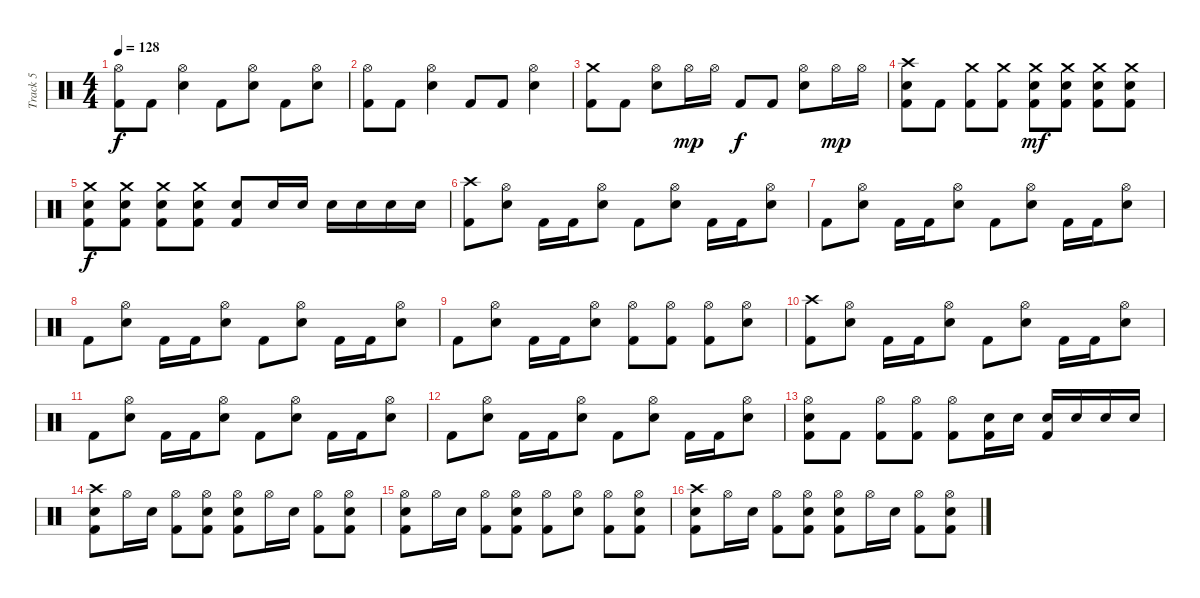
\track ("Track 5" "Track 5") {instrument percussion}
\staff {score}
\articulation defaults
\ts (4 4)
\tempo 128
\clef neutral
\ks c
("Hi-Hat (open)" "Kick (hit) 2").8{dy f} "Kick (hit) 2".8 ("Hi-Hat (open)" "Electric Snare (hit)").4 "Kick (hit) 2".8 ("Hi-Hat (open)" "Electric Snare (hit)").8 "Kick (hit) 2".8 ("Hi-Hat (open)" "Electric Snare (hit)").8 |
("Hi-Hat (open)" "Kick (hit) 2").8 "Kick (hit) 2".8 ("Hi-Hat (open)" "Electric Snare (hit)").4 "Kick (hit) 2".8 "Kick (hit) 2".8 ("Hi-Hat (open)" "Electric Snare (hit)").4 |
("Crash medium (hit)" "Kick (hit) 2").8 "Kick (hit) 2".8 ("Hi-Hat (open)" "Electric Snare (hit)").8 "Hi-Hat (open)".16{dy mp} "Hi-Hat (open)".16 "Kick (hit) 2".8{dy f} "Kick (hit) 2".8 ("Hi-Hat (open)" "Electric Snare (hit)").8 "Hi-Hat (open)".16{dy mp} "Hi-Hat (open)".16 |
("Crash high (hit)" "Electric Snare (hit)" "Kick (hit) 2").8 "Kick (hit) 2".8 ("Crash medium (hit)" "Kick (hit) 2").8 ("Crash medium (hit)" "Kick (hit) 2").8 ("Crash medium (hit)" "Electric Snare (hit)" "Kick (hit) 2").8{dy mf} ("Crash medium (hit)" "Electric Snare (hit)" "Kick (hit) 2").8 ("Crash medium (hit)" "Electric Snare (hit)" "Kick (hit) 2").8 ("Crash medium (hit)" "Electric Snare (hit)" "Kick (hit) 2").8 |
("Crash medium (hit)" "Electric Snare (hit)" "Kick (hit) 2").8{dy f} ("Crash medium (hit)" "Electric Snare (hit)" "Kick (hit) 2").8 ("Crash medium (hit)" "Electric Snare (hit)" "Kick (hit) 2").8 ("Crash medium (hit)" "Electric Snare (hit)" "Kick (hit) 2").8 ("Electric Snare (hit)" "Kick (hit) 2").8 "Electric Snare (hit)".16 "Electric Snare (hit)".16 "Electric Snare (hit)".16 "Electric Snare (hit)".16 "Electric Snare (hit)".16 "Electric Snare (hit)".16 |
("Crash high (hit)" "Kick (hit) 2").8 ("Hi-Hat (open)" "Electric Snare (hit)").8 "Kick (hit) 2".16 "Kick (hit) 2".16 ("Hi-Hat (open)" "Electric Snare (hit)").8 "Kick (hit) 2".8 ("Hi-Hat (open)" "Electric Snare (hit)").8 "Kick (hit) 2".16 "Kick (hit) 2".16 ("Hi-Hat (open)" "Electric Snare (hit)").8 |
"Kick (hit) 2".8 ("Hi-Hat (open)" "Electric Snare (hit)").8 "Kick (hit) 2".16 "Kick (hit) 2".16 ("Hi-Hat (open)" "Electric Snare (hit)").8 "Kick (hit) 2".8 ("Hi-Hat (open)" "Electric Snare (hit)").8 "Kick (hit) 2".16 "Kick (hit) 2".16 ("Hi-Hat (open)" "Electric Snare (hit)").8 |
"Kick (hit) 2".8 ("Hi-Hat (open)" "Electric Snare (hit)").8 "Kick (hit) 2".16 "Kick (hit) 2".16 ("Hi-Hat (open)" "Electric Snare (hit)").8 "Kick (hit) 2".8 ("Hi-Hat (open)" "Electric Snare (hit)").8 "Kick (hit) 2".16 "Kick (hit) 2".16 ("Hi-Hat (open)" "Electric Snare (hit)").8 |
"Kick (hit) 2".8 ("Hi-Hat (open)" "Electric Snare (hit)").8 "Kick (hit) 2".16 "Kick (hit) 2".16 ("Hi-Hat (open)" "Electric Snare (hit)").8 ("Hi-Hat (open)" "Kick (hit) 2").8 ("Hi-Hat (open)" "Kick (hit) 2").8 ("Hi-Hat (open)" "Kick (hit) 2").8 ("Hi-Hat (open)" "Electric Snare (hit)").8 |
("Crash high (hit)" "Kick (hit) 2").8 ("Hi-Hat (open)" "Electric Snare (hit)").8 "Kick (hit) 2".16 "Kick (hit) 2".16 ("Hi-Hat (open)" "Electric Snare (hit)").8 "Kick (hit) 2".8 ("Hi-Hat (open)" "Electric Snare (hit)").8 "Kick (hit) 2".16 "Kick (hit) 2".16 ("Hi-Hat (open)" "Electric Snare (hit)").8 |
"Kick (hit) 2".8 ("Hi-Hat (open)" "Electric Snare (hit)").8 "Kick (hit) 2".16 "Kick (hit) 2".16 ("Hi-Hat (open)" "Electric Snare (hit)").8 "Kick (hit) 2".8 ("Hi-Hat (open)" "Electric Snare (hit)").8 "Kick (hit) 2".16 "Kick (hit) 2".16 ("Hi-Hat (open)" "Electric Snare (hit)").8 |
"Kick (hit) 2".8 ("Hi-Hat (open)" "Electric Snare (hit)").8 "Kick (hit) 2".16 "Kick (hit) 2".16 ("Hi-Hat (open)" "Electric Snare (hit)").8 "Kick (hit) 2".8 ("Hi-Hat (open)" "Electric Snare (hit)").8 "Kick (hit) 2".16 "Kick (hit) 2".16 ("Hi-Hat (open)" "Electric Snare (hit)").8 |
("Hi-Hat (open)" "Electric Snare (hit)" "Kick (hit) 2").8 "Kick (hit) 2".8 ("Hi-Hat (open)" "Kick (hit) 2").8 ("Hi-Hat (open)" "Kick (hit) 2").8 ("Hi-Hat (open)" "Kick (hit) 2").8 ("Electric Snare (hit)" "Kick (hit) 2").16 "Electric Snare (hit)".16 ("Electric Snare (hit)" "Kick (hit) 2").16 "Electric Snare (hit)".16 "Electric Snare (hit)".16 "Electric Snare (hit)".16 |
("Crash high (hit)" "Electric Snare (hit)" "Kick (hit) 2").8 "Hi-Hat (open)".16 "Electric Snare (hit)".16 ("Hi-Hat (open)" "Kick (hit) 2").8 ("Hi-Hat (open)" "Electric Snare (hit)" "Kick (hit) 2").8 ("Hi-Hat (open)" "Electric Snare (hit)" "Kick (hit) 2").8 "Hi-Hat (open)".16 "Electric Snare (hit)".16 ("Hi-Hat (open)" "Kick (hit) 2").8 ("Hi-Hat (open)" "Electric Snare (hit)" "Kick (hit) 2").8 |
("Hi-Hat (open)" "Electric Snare (hit)" "Kick (hit) 2").8 "Hi-Hat (open)".16 "Electric Snare (hit)".16 ("Hi-Hat (open)" "Kick (hit) 2").8 ("Hi-Hat (open)" "Electric Snare (hit)" "Kick (hit) 2").8 ("Hi-Hat (open)" "Kick (hit) 2").8 ("Hi-Hat (open)" "Electric Snare (hit)").8 ("Hi-Hat (open)" "Kick (hit) 2").8 ("Hi-Hat (open)" "Electric Snare (hit)" "Kick (hit) 2").8 |
("Crash high (hit)" "Electric Snare (hit)" "Kick (hit) 2").8 "Hi-Hat (open)".16 "Electric Snare (hit)".16 ("Hi-Hat (open)" "Kick (hit) 2").8 ("Hi-Hat (open)" "Electric Snare (hit)" "Kick (hit) 2").8 ("Hi-Hat (open)" "Electric Snare (hit)" "Kick (hit) 2").8 "Hi-Hat (open)".16 "Electric Snare (hit)".16 ("Hi-Hat (open)" "Kick (hit) 2").8 ("Hi-Hat (open)" "Electric Snare (hit)" "Kick (hit) 2").8
